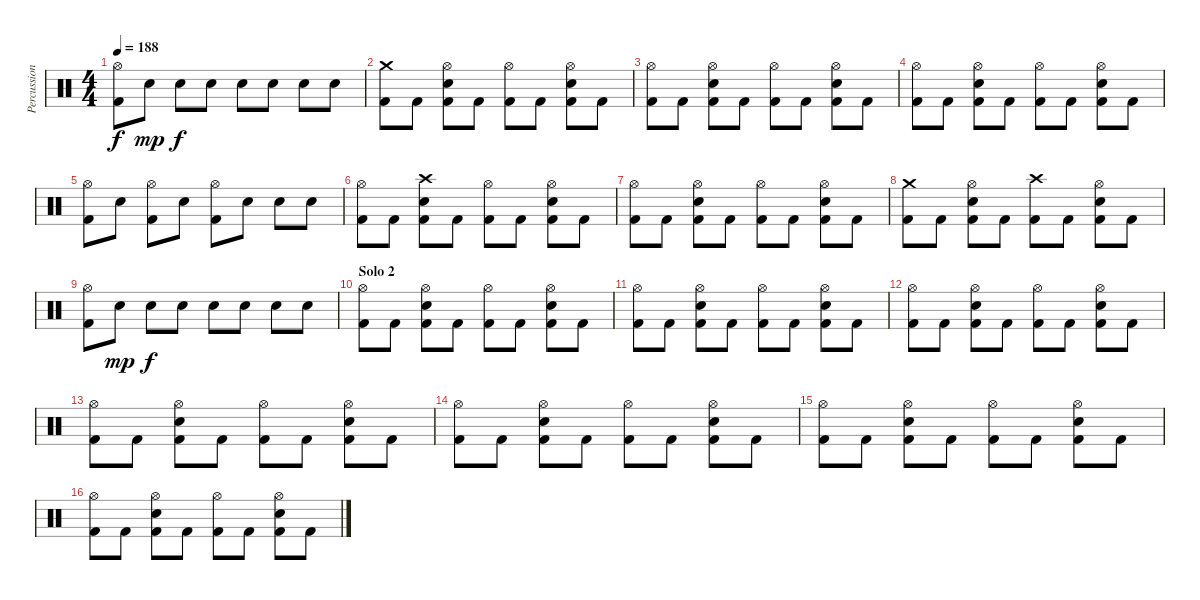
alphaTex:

\track ("Percussions" "Percussion") {instrument percussion}
\staff {score}
\articulation defaults
\ts (4 4)
\tempo 188
\clef neutral
\ks c
("Hi-Hat (open)" "Kick (hit) 2").8{dy f} "Snare (hit) 2".8{dy mp} "Snare (hit) 2".8{dy f} "Snare (hit) 2".8 "Snare (hit) 2".8 "Snare (hit) 2".8 "Snare (hit) 2".8 "Snare (hit) 2".8 |
("Crash medium (hit)" "Kick (hit) 2").8 "Kick (hit) 2".8 ("Hi-Hat (open)" "Snare (hit) 2" "Kick (hit) 2").8 "Kick (hit) 2".8 ("Hi-Hat (open)" "Kick (hit) 2").8 "Kick (hit) 2".8 ("Hi-Hat (open)" "Snare (hit) 2" "Kick (hit) 2").8 "Kick (hit) 2".8 |
("Hi-Hat (open)" "Kick (hit) 2").8 "Kick (hit) 2".8 ("Hi-Hat (open)" "Snare (hit) 2" "Kick (hit) 2").8 "Kick (hit) 2".8 ("Hi-Hat (open)" "Kick (hit) 2").8 "Kick (hit) 2".8 ("Hi-Hat (open)" "Snare (hit) 2" "Kick (hit) 2").8 "Kick (hit) 2".8 |
("Hi-Hat (open)" "Kick (hit) 2").8 "Kick (hit) 2".8 ("Hi-Hat (open)" "Snare (hit) 2" "Kick (hit) 2").8 "Kick (hit) 2".8 ("Hi-Hat (open)" "Kick (hit) 2").8 "Kick (hit) 2".8 ("Hi-Hat (open)" "Snare (hit) 2" "Kick (hit) 2").8 "Kick (hit) 2".8 |
("Hi-Hat (open)" "Kick (hit) 2").8 "Snare (hit) 2".8 ("Hi-Hat (open)" "Kick (hit) 2").8 "Snare (hit) 2".8 ("Hi-Hat (open)" "Kick (hit) 2").8 "Snare (hit) 2".8 "Snare (hit) 2".8 "Snare (hit) 2".8 |
("Hi-Hat (open)" "Kick (hit) 2").8 "Kick (hit) 2".8 ("Crash high (hit)" "Snare (hit) 2" "Kick (hit) 2").8 "Kick (hit) 2".8 ("Hi-Hat (open)" "Kick (hit) 2").8 "Kick (hit) 2".8 ("Hi-Hat (open)" "Snare (hit) 2" "Kick (hit) 2").8 "Kick (hit) 2".8 |
("Hi-Hat (open)" "Kick (hit) 2").8 "Kick (hit) 2".8 ("Hi-Hat (open)" "Snare (hit) 2" "Kick (hit) 2").8 "Kick (hit) 2".8 ("Hi-Hat (open)" "Kick (hit) 2").8 "Kick (hit) 2".8 ("Hi-Hat (open)" "Snare (hit) 2" "Kick (hit) 2").8 "Kick (hit) 2".8 |
("Crash medium (hit)" "Kick (hit) 2").8 "Kick (hit) 2".8 ("Hi-Hat (open)" "Snare (hit) 2" "Kick (hit) 2").8 "Kick (hit) 2".8 ("Crash high (hit)" "Kick (hit) 2").8 "Kick (hit) 2".8 ("Hi-Hat (open)" "Snare (hit) 2" "Kick (hit) 2").8 "Kick (hit) 2".8 |
("Hi-Hat (open)" "Kick (hit) 2").8 "Snare (hit) 2".8{dy mp} "Snare (hit) 2".8{dy f} "Snare (hit) 2".8 "Snare (hit) 2".8 "Snare (hit) 2".8 "Snare (hit) 2".8 "Snare (hit) 2".8 |
\section ("" "Solo 2")
("Hi-Hat (open)" "Kick (hit) 2").8 "Kick (hit) 2".8 ("Hi-Hat (open)" "Snare (hit) 2" "Kick (hit) 2").8 "Kick (hit) 2".8 ("Hi-Hat (open)" "Kick (hit) 2").8 "Kick (hit) 2".8 ("Hi-Hat (open)" "Snare (hit) 2" "Kick (hit) 2").8 "Kick (hit) 2".8 |
("Hi-Hat (open)" "Kick (hit) 2").8 "Kick (hit) 2".8 ("Hi-Hat (open)" "Snare (hit) 2" "Kick (hit) 2").8 "Kick (hit) 2".8 ("Hi-Hat (open)" "Kick (hit) 2").8 "Kick (hit) 2".8 ("Hi-Hat (open)" "Snare (hit) 2" "Kick (hit) 2").8 "Kick (hit) 2".8 |
("Hi-Hat (open)" "Kick (hit) 2").8 "Kick (hit) 2".8 ("Hi-Hat (open)" "Snare (hit) 2" "Kick (hit) 2").8 "Kick (hit) 2".8 ("Hi-Hat (open)" "Kick (hit) 2").8 "Kick (hit) 2".8 ("Hi-Hat (open)" "Snare (hit) 2" "Kick (hit) 2").8 "Kick (hit) 2".8 |
("Hi-Hat (open)" "Kick (hit) 2").8 "Kick (hit) 2".8 ("Hi-Hat (open)" "Snare (hit) 2" "Kick (hit) 2").8 "Kick (hit) 2".8 ("Hi-Hat (open)" "Kick (hit) 2").8 "Kick (hit) 2".8 ("Hi-Hat (open)" "Snare (hit) 2" "Kick (hit) 2").8 "Kick (hit) 2".8 |
("Hi-Hat (open)" "Kick (hit) 2").8 "Kick (hit) 2".8 ("Hi-Hat (open)" "Snare (hit) 2" "Kick (hit) 2").8 "Kick (hit) 2".8 ("Hi-Hat (open)" "Kick (hit) 2").8 "Kick (hit) 2".8 ("Hi-Hat (open)" "Snare (hit) 2" "Kick (hit) 2").8 "Kick (hit) 2".8 |
("Hi-Hat (open)" "Kick (hit) 2").8 "Kick (hit) 2".8 ("Hi-Hat (open)" "Snare (hit) 2" "Kick (hit) 2").8 "Kick (hit) 2".8 ("Hi-Hat (open)" "Kick (hit) 2").8 "Kick (hit) 2".8 ("Hi-Hat (open)" "Snare (hit) 2" "Kick (hit) 2").8 "Kick (hit) 2".8 |
("Hi-Hat (open)" "Kick (hit) 2").8 "Kick (hit) 2".8 ("Hi-Hat (open)" "Snare (hit) 2" "Kick (hit) 2").8 "Kick (hit) 2".8 ("Hi-Hat (open)" "Kick (hit) 2").8 "Kick (hit) 2".8 ("Hi-Hat (open)" "Snare (hit) 2" "Kick (hit) 2").8 "Kick (hit) 2".8
